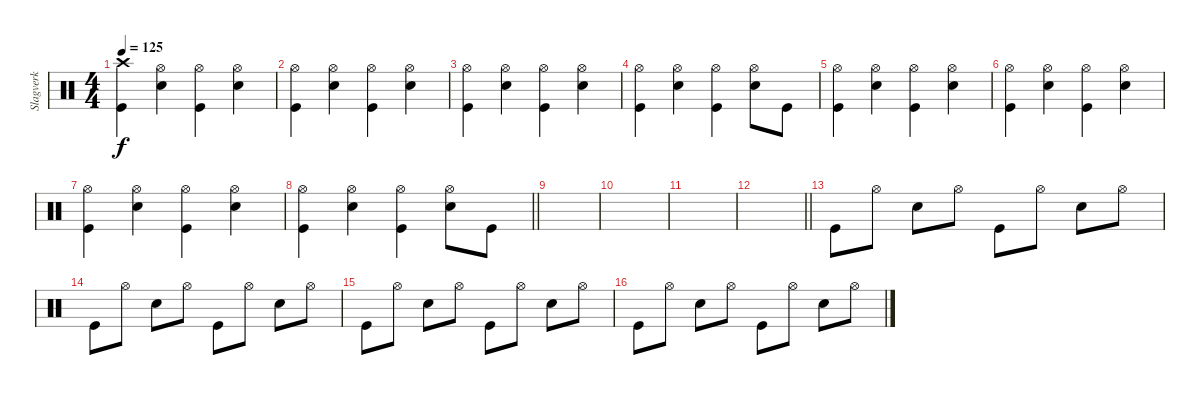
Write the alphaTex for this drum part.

\track ("Slagverk" "Slagverk") {instrument percussion}
\staff {score}
\articulation defaults
\ts (4 4)
\tempo 125
\clef neutral
\ks c
("Crash high (hit)" "Kick (hit)").4{dy f} ("Hi-Hat (open)" "Snare (hit) 2").4 ("Hi-Hat (open)" "Kick (hit)").4 ("Hi-Hat (open)" "Snare (hit) 2").4 |
("Hi-Hat (open)" "Kick (hit)").4 ("Hi-Hat (open)" "Snare (hit) 2").4 ("Hi-Hat (open)" "Kick (hit)").4 ("Hi-Hat (open)" "Snare (hit) 2").4 |
("Hi-Hat (open)" "Kick (hit)").4 ("Hi-Hat (open)" "Snare (hit) 2").4 ("Hi-Hat (open)" "Kick (hit)").4 ("Hi-Hat (open)" "Snare (hit) 2").4 |
("Hi-Hat (open)" "Kick (hit)").4 ("Hi-Hat (open)" "Snare (hit) 2").4 ("Hi-Hat (open)" "Kick (hit)").4 ("Hi-Hat (open)" "Snare (hit) 2").8 "Kick (hit)".8 |
("Hi-Hat (open)" "Kick (hit)").4 ("Hi-Hat (open)" "Snare (hit) 2").4 ("Hi-Hat (open)" "Kick (hit)").4 ("Hi-Hat (open)" "Snare (hit) 2").4 |
("Hi-Hat (open)" "Kick (hit)").4 ("Hi-Hat (open)" "Snare (hit) 2").4 ("Hi-Hat (open)" "Kick (hit)").4 ("Hi-Hat (open)" "Snare (hit) 2").4 |
("Hi-Hat (open)" "Kick (hit)").4 ("Hi-Hat (open)" "Snare (hit) 2").4 ("Hi-Hat (open)" "Kick (hit)").4 ("Hi-Hat (open)" "Snare (hit) 2").4 |
\barLineRight lightlight
("Hi-Hat (open)" "Kick (hit)").4 ("Hi-Hat (open)" "Snare (hit) 2").4 ("Hi-Hat (open)" "Kick (hit)").4 ("Hi-Hat (open)" "Snare (hit) 2").8 "Kick (hit)".8 |
|
|
|
\barLineRight lightlight
|
"Kick (hit)".8 "Hi-Hat (open)".8 "Snare (hit) 2".8 "Hi-Hat (open)".8 "Kick (hit)".8 "Hi-Hat (open)".8 "Snare (hit) 2".8 "Hi-Hat (open)".8 |
"Kick (hit)".8 "Hi-Hat (open)".8 "Snare (hit) 2".8 "Hi-Hat (open)".8 "Kick (hit)".8 "Hi-Hat (open)".8 "Snare (hit) 2".8 "Hi-Hat (open)".8 |
"Kick (hit)".8 "Hi-Hat (open)".8 "Snare (hit) 2".8 "Hi-Hat (open)".8 "Kick (hit)".8 "Hi-Hat (open)".8 "Snare (hit) 2".8 "Hi-Hat (open)".8 |
"Kick (hit)".8 "Hi-Hat (open)".8 "Snare (hit) 2".8 "Hi-Hat (open)".8 "Kick (hit)".8 "Hi-Hat (open)".8 "Snare (hit) 2".8 "Hi-Hat (open)".8
